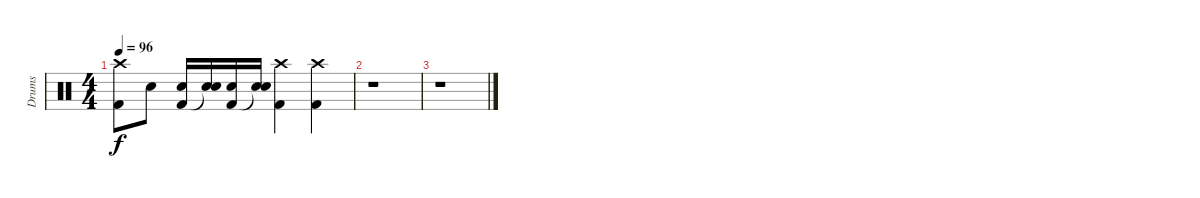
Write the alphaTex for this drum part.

\track ("Drums" "Drums") {instrument percussion}
\staff {score}
\articulation defaults
\ts (4 4)
\tempo 96
\clef neutral
\ks c
("Crash high (hit)" "Kick (hit) 2").8{dy f} "Snare (hit) 2".8 ("Snare (hit) 2" "Kick (hit) 2").16 ("Snare (hit) 2" "Snare (hit)"{t}).16 ("Snare (hit) 2" "Kick (hit) 2").16 ("Snare (hit) 2" "Snare (hit)"{t}).16 ("Crash high (hit)" "Kick (hit) 2").4 ("Crash high (hit)" "Kick (hit) 2").4 |
r.1 |
r.1
